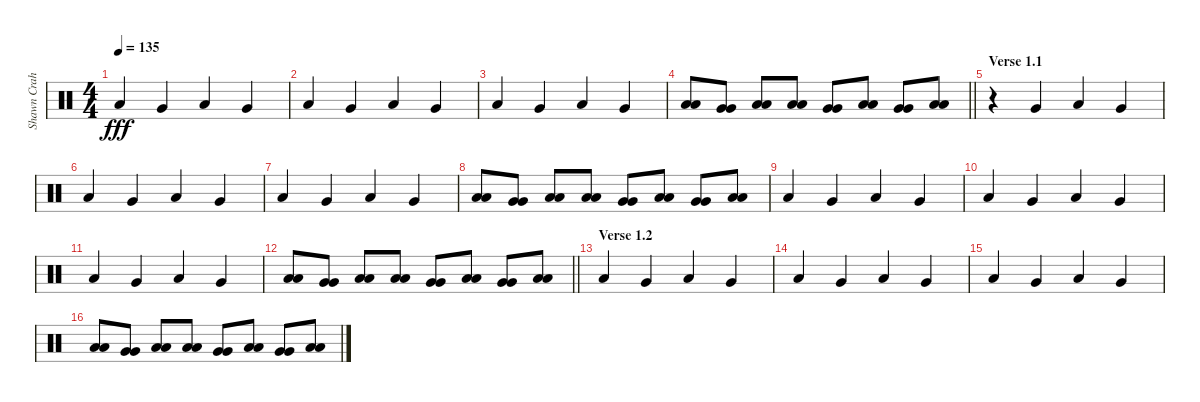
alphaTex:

\track ("Shawn Crahan" "Shawn Crah") {instrument percussion}
\staff {score}
\articulation defaults
\ts (4 4)
\tempo 135
\clef neutral
\ks c "Low Floor Tom (hit)".4{dy fff} "Very Low Tom (hit)".4 "Low Floor Tom (hit)".4 "Very Low Tom (hit)".4
|
"Low Floor Tom (hit)".4 "Very Low Tom (hit)".4 "Low Floor Tom (hit)".4 "Very Low Tom (hit)".4 |
"Low Floor Tom (hit)".4 "Very Low Tom (hit)".4 "Low Floor Tom (hit)".4 "Very Low Tom (hit)".4 |
\barLineRight lightlight
("Low Tom (hit)" "Low Tom (hit)").8 ("Very Low Tom (hit)" "Very Low Tom (hit)").8 ("Low Floor Tom (hit)" "Low Floor Tom (hit)").8 ("Low Floor Tom (hit)" "Low Floor Tom (hit)").8 ("Very Low Tom (hit)" "Very Low Tom (hit)").8 ("Low Floor Tom (hit)" "Low Floor Tom (hit)").8 ("Very Low Tom (hit)" "Very Low Tom (hit)").8 ("Low Floor Tom (hit)" "Low Floor Tom (hit)").8 |
\section ("" "Verse 1.1")
r.4 "Very Low Tom (hit)".4 "Low Floor Tom (hit)".4 "Very Low Tom (hit)".4 |
"Low Floor Tom (hit)".4 "Very Low Tom (hit)".4 "Low Floor Tom (hit)".4 "Very Low Tom (hit)".4 |
"Low Floor Tom (hit)".4 "Very Low Tom (hit)".4 "Low Floor Tom (hit)".4 "Very Low Tom (hit)".4 |
("Low Tom (hit)" "Low Tom (hit)").8 ("Very Low Tom (hit)" "Very Low Tom (hit)").8 ("Low Floor Tom (hit)" "Low Floor Tom (hit)").8 ("Low Floor Tom (hit)" "Low Floor Tom (hit)").8 ("Very Low Tom (hit)" "Very Low Tom (hit)").8 ("Low Floor Tom (hit)" "Low Floor Tom (hit)").8 ("Very Low Tom (hit)" "Very Low Tom (hit)").8 ("Low Floor Tom (hit)" "Low Floor Tom (hit)").8 |
"Low Floor Tom (hit)".4 "Very Low Tom (hit)".4 "Low Floor Tom (hit)".4 "Very Low Tom (hit)".4 |
"Low Floor Tom (hit)".4 "Very Low Tom (hit)".4 "Low Floor Tom (hit)".4 "Very Low Tom (hit)".4 |
"Low Floor Tom (hit)".4 "Very Low Tom (hit)".4 "Low Floor Tom (hit)".4 "Very Low Tom (hit)".4 |
\barLineRight lightlight
("Low Tom (hit)" "Low Tom (hit)").8 ("Very Low Tom (hit)" "Very Low Tom (hit)").8 ("Low Floor Tom (hit)" "Low Floor Tom (hit)").8 ("Low Floor Tom (hit)" "Low Floor Tom (hit)").8 ("Very Low Tom (hit)" "Very Low Tom (hit)").8 ("Low Floor Tom (hit)" "Low Floor Tom (hit)").8 ("Very Low Tom (hit)" "Very Low Tom (hit)").8 ("Low Floor Tom (hit)" "Low Floor Tom (hit)").8 |
\section ("" "Verse 1.2")
"Low Floor Tom (hit)".4 "Very Low Tom (hit)".4 "Low Floor Tom (hit)".4 "Very Low Tom (hit)".4 |
"Low Floor Tom (hit)".4 "Very Low Tom (hit)".4 "Low Floor Tom (hit)".4 "Very Low Tom (hit)".4 |
"Low Floor Tom (hit)".4 "Very Low Tom (hit)".4 "Low Floor Tom (hit)".4 "Very Low Tom (hit)".4 |
("Low Tom (hit)" "Low Tom (hit)").8 ("Very Low Tom (hit)" "Very Low Tom (hit)").8 ("Low Floor Tom (hit)" "Low Floor Tom (hit)").8 ("Low Floor Tom (hit)" "Low Floor Tom (hit)").8 ("Very Low Tom (hit)" "Very Low Tom (hit)").8 ("Low Floor Tom (hit)" "Low Floor Tom (hit)").8 ("Very Low Tom (hit)" "Very Low Tom (hit)").8 ("Low Floor Tom (hit)" "Low Floor Tom (hit)").8
